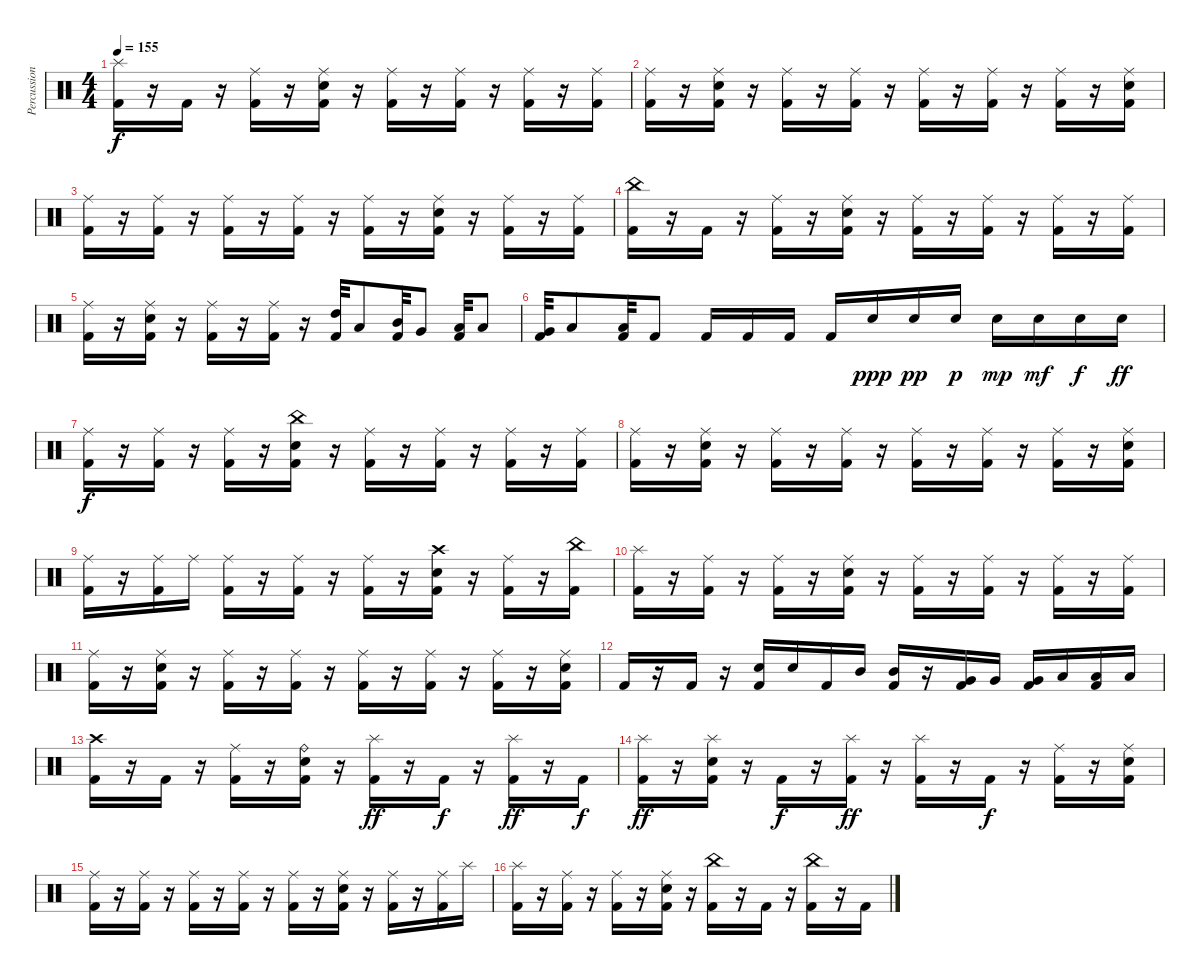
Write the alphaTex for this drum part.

\track ("Percussion" "Percussion") {instrument percussion}
\staff {score}
\articulation defaults
\ts (4 4)
\tempo 155
\clef neutral
\ks c
("Kick (hit) 2" "Splash (hit)").16{dy f} r.16 "Kick (hit) 2".16 r.16 ("Kick (hit) 2" "Ride (middle)").16 r.16 ("Kick (hit) 2" "Snare (hit) 2" "Ride (middle)").16 r.16 ("Kick (hit) 2" "Ride (middle)").16 r.16 ("Kick (hit) 2" "Ride (middle)").16 r.16 ("Kick (hit) 2" "Ride (middle)").16 r.16 ("Kick (hit) 2" "Ride (middle)").16 |
("Kick (hit) 2" "Ride (middle)").16 r.16 ("Kick (hit) 2" "Snare (hit) 2" "Ride (middle)").16 r.16 ("Kick (hit) 2" "Ride (middle)").16 r.16 ("Kick (hit) 2" "Ride (middle)").16 r.16 ("Kick (hit) 2" "Ride (middle)").16 r.16 ("Kick (hit) 2" "Ride (middle)").16 r.16 ("Kick (hit) 2" "Ride (middle)").16 r.16 ("Kick (hit) 2" "Snare (hit) 2" "Ride (middle)").16 |
("Kick (hit) 2" "Ride (middle)").16 r.16 ("Kick (hit) 2" "Ride (middle)").16 r.16 ("Kick (hit) 2" "Ride (middle)").16 r.16 ("Kick (hit) 2" "Ride (middle)").16 r.16 ("Kick (hit) 2" "Ride (middle)").16 r.16 ("Kick (hit) 2" "Snare (hit) 2" "Ride (middle)").16 r.16 ("Kick (hit) 2" "Ride (middle)").16 r.16 ("Kick (hit) 2" "Ride (middle)").16 |
("Kick (hit) 2" "China (hit)").16 r.16 "Kick (hit) 2".16 r.16 ("Kick (hit) 2" "Ride (middle)").16 r.16 ("Kick (hit) 2" "Snare (hit) 2" "Ride (middle)").16 r.16 ("Kick (hit) 2" "Ride (middle)").16 r.16 ("Kick (hit) 2" "Ride (middle)").16 r.16 ("Kick (hit) 2" "Ride (middle)").16 r.16 ("Kick (hit) 2" "Ride (middle)").16 |
("Kick (hit) 2" "Ride (middle)").16 r.16 ("Kick (hit) 2" "Snare (hit) 2" "Ride (middle)").16 r.16 ("Kick (hit) 2" "Ride (middle)").16 r.16 ("Kick (hit) 2" "Ride (middle)").16 r.16 ("High Tom (hit)" "Kick (hit) 2").32 "Low Tom (hit)".8 ("Mid Tom (hit)" "Kick (hit) 2").32 "Very Low Tom (hit)".8 ("Low Tom (hit)" "Kick (hit) 2").32 "Low Floor Tom (hit)".8 |
("Very Low Tom (hit)" "Kick (hit) 2").32 "Low Floor Tom (hit)".8 ("Low Floor Tom (hit)" "Kick (hit) 2").32 "Kick (hit) 2".8 "Kick (hit) 2".16 "Kick (hit) 2".16 "Kick (hit) 2".16 "Kick (hit) 2".16 "Snare (hit) 2".16{dy ppp} "Snare (hit) 2".16{dy pp} "Snare (hit) 2".16{dy p} "Snare (hit) 2".16{dy mp} "Snare (hit) 2".16{dy mf} "Snare (hit) 2".16{dy f} "Snare (hit) 2".16{dy ff} |
("Kick (hit) 2" "Ride (middle)").16{dy f} r.16 ("Kick (hit) 2" "Ride (middle)").16 r.16 ("Kick (hit) 2" "Ride (middle)").16 r.16 ("Kick (hit) 2" "Snare (hit) 2" "China (hit)").16 r.16 ("Kick (hit) 2" "Ride (middle)").16 r.16 ("Kick (hit) 2" "Ride (middle)").16 r.16 ("Kick (hit) 2" "Ride (middle)").16 r.16 ("Kick (hit) 2" "Ride (middle)").16 |
("Kick (hit) 2" "Ride (middle)").16 r.16 ("Kick (hit) 2" "Snare (hit) 2" "Ride (middle)").16 r.16 ("Kick (hit) 2" "Ride (middle)").16 r.16 ("Kick (hit) 2" "Ride (middle)").16 r.16 ("Kick (hit) 2" "Ride (middle)").16 r.16 ("Kick (hit) 2" "Ride (middle)").16 r.16 ("Kick (hit) 2" "Ride (middle)").16 r.16 ("Kick (hit) 2" "Snare (hit) 2" "Ride (middle)").16 |
("Kick (hit) 2" "Ride (middle)").16 r.16 ("Kick (hit) 2" "Ride (middle)").16 "Ride (middle)".16 ("Kick (hit) 2" "Ride (middle)").16 r.16 ("Kick (hit) 2" "Ride (middle)").16 r.16 ("Kick (hit) 2" "Ride (middle)").16 r.16 ("Kick (hit) 2" "Snare (hit) 2" "Crash high (hit)").16 r.16 ("Kick (hit) 2" "Ride (middle)").16 r.16 ("Kick (hit) 2" "China (hit)").16 |
("Kick (hit) 2" "Splash (hit)").16 r.16 ("Kick (hit) 2" "Ride (middle)").16 r.16 ("Kick (hit) 2" "Ride (middle)").16 r.16 ("Kick (hit) 2" "Snare (hit) 2" "Ride (middle)").16 r.16 ("Kick (hit) 2" "Ride (middle)").16 r.16 ("Kick (hit) 2" "Ride (middle)").16 r.16 ("Kick (hit) 2" "Ride (middle)").16 r.16 ("Kick (hit) 2" "Ride (middle)").16 |
("Kick (hit) 2" "Ride (middle)").16 r.16 ("Kick (hit) 2" "Snare (hit) 2" "Ride (middle)").16 r.16 ("Kick (hit) 2" "Ride (middle)").16 r.16 ("Kick (hit) 2" "Ride (middle)").16 r.16 ("Kick (hit) 2" "Ride (middle)").16 r.16 ("Kick (hit) 2" "Ride (middle)").16 r.16 ("Kick (hit) 2" "Ride (middle)").16 r.16 ("Kick (hit) 2" "Snare (hit) 2" "Ride (middle)").16 |
"Kick (hit) 2".16 r.16 "Kick (hit) 2".16 r.16 ("Kick (hit) 2" "Snare (hit) 2").16 "Snare (hit) 2".16 "Kick (hit) 2".16 "Mid Tom (hit)".16 ("Kick (hit) 2" "Mid Tom (hit)").16 r.16 ("Kick (hit) 2" "Very Low Tom (hit)").16 "Very Low Tom (hit)".16 ("Kick (hit) 2" "Very Low Tom (hit)").16 "Low Floor Tom (hit)".16 ("Kick (hit) 2" "Low Floor Tom (hit)").16 "Low Floor Tom (hit)".16 |
("Kick (hit) 2" "Crash high (hit)").16 r.16 "Kick (hit) 2".16 r.16 ("Kick (hit) 2" "Ride (middle)").16 r.16 ("Kick (hit) 2" "Snare (hit) 2" "Ride (bell)").16 r.16 ("Kick (hit) 2" "Splash (hit)").16{dy ff} r.16 "Kick (hit) 2".16{dy f} r.16 ("Kick (hit) 2" "Splash (hit)").16{dy ff} r.16 "Kick (hit) 2".16{dy f} |
("Kick (hit) 2" "Splash (hit)").16{dy ff} r.16 ("Kick (hit) 2" "Snare (hit) 2" "Splash (hit)").16 r.16 "Kick (hit) 2".16{dy f} r.16 ("Kick (hit) 2" "Splash (hit)").16{dy ff} r.16 ("Kick (hit) 2" "Splash (hit)").16 r.16 "Kick (hit) 2".16{dy f} r.16 ("Kick (hit) 2" "Ride (middle)").16 r.16 ("Kick (hit) 2" "Snare (hit) 2" "Ride (middle)").16 |
("Kick (hit) 2" "Ride (middle)").16 r.16 ("Kick (hit) 2" "Ride (middle)").16 r.16 ("Kick (hit) 2" "Ride (middle)").16 r.16 ("Kick (hit) 2" "Ride (middle)").16 r.16 ("Kick (hit) 2" "Ride (middle)").16 r.16 ("Kick (hit) 2" "Snare (hit) 2" "Ride (middle)").16 r.16 ("Kick (hit) 2" "Ride (middle)").16 r.16 ("Kick (hit) 2" "Ride (middle)").16 "Splash (hit)".16 |
("Kick (hit) 2" "Splash (hit)").16 r.16 ("Kick (hit) 2" "Ride (middle)").16 r.16 ("Kick (hit) 2" "Ride (middle)").16 r.16 ("Kick (hit) 2" "Snare (hit) 2" "Ride (middle)").16 r.16 ("Kick (hit) 2" "China (hit)").16 r.16 "Kick (hit) 2".16 r.16 ("Kick (hit) 2" "China (hit)").16 r.16 "Kick (hit) 2".16
